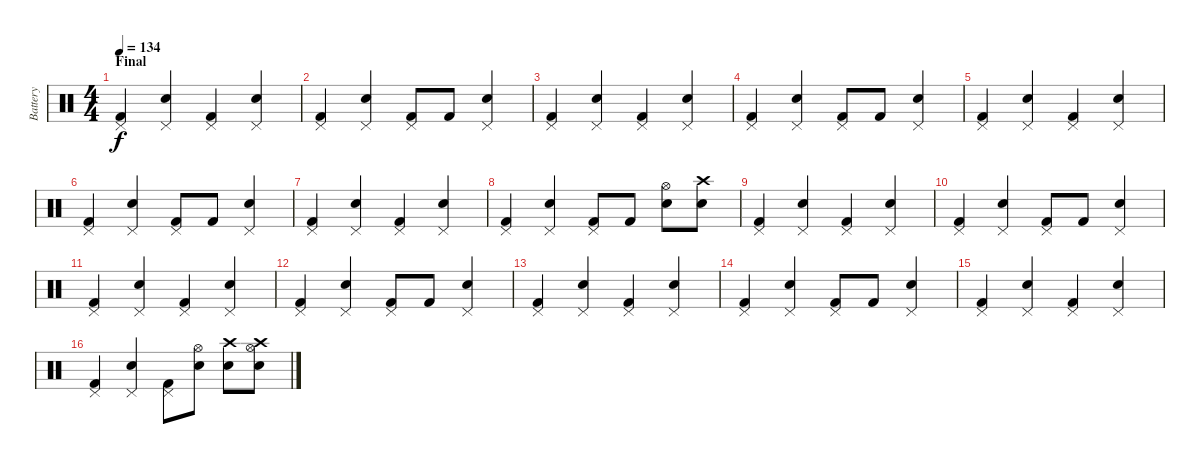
\track ("Battery" "Battery") {instrument percussion}
\staff {score}
\articulation defaults
\ts (4 4)
\section ("" "Final")
\tempo 134
\clef neutral
\ks c
("Pedal Hi-Hat (hit)" "Kick (hit) 2").4{dy f} ("Pedal Hi-Hat (hit)" "Snare (hit) 2").4 ("Pedal Hi-Hat (hit)" "Kick (hit) 2").4 ("Pedal Hi-Hat (hit)" "Snare (hit) 2").4 |
("Pedal Hi-Hat (hit)" "Kick (hit) 2").4 ("Pedal Hi-Hat (hit)" "Snare (hit) 2").4 ("Pedal Hi-Hat (hit)" "Kick (hit) 2").8 "Kick (hit) 2".8 ("Pedal Hi-Hat (hit)" "Snare (hit) 2").4 |
("Pedal Hi-Hat (hit)" "Kick (hit) 2").4 ("Pedal Hi-Hat (hit)" "Snare (hit) 2").4 ("Pedal Hi-Hat (hit)" "Kick (hit) 2").4 ("Pedal Hi-Hat (hit)" "Snare (hit) 2").4 |
("Pedal Hi-Hat (hit)" "Kick (hit) 2").4 ("Pedal Hi-Hat (hit)" "Snare (hit) 2").4 ("Pedal Hi-Hat (hit)" "Kick (hit) 2").8 "Kick (hit) 2".8 ("Pedal Hi-Hat (hit)" "Snare (hit) 2").4 |
("Pedal Hi-Hat (hit)" "Kick (hit) 2").4 ("Pedal Hi-Hat (hit)" "Snare (hit) 2").4 ("Pedal Hi-Hat (hit)" "Kick (hit) 2").4 ("Pedal Hi-Hat (hit)" "Snare (hit) 2").4 |
("Pedal Hi-Hat (hit)" "Kick (hit) 2").4 ("Pedal Hi-Hat (hit)" "Snare (hit) 2").4 ("Pedal Hi-Hat (hit)" "Kick (hit) 2").8 "Kick (hit) 2".8 ("Pedal Hi-Hat (hit)" "Snare (hit) 2").4 |
("Pedal Hi-Hat (hit)" "Kick (hit) 2").4 ("Pedal Hi-Hat (hit)" "Snare (hit) 2").4 ("Pedal Hi-Hat (hit)" "Kick (hit) 2").4 ("Pedal Hi-Hat (hit)" "Snare (hit) 2").4 |
("Pedal Hi-Hat (hit)" "Kick (hit) 2").4 ("Pedal Hi-Hat (hit)" "Snare (hit) 2").4 ("Pedal Hi-Hat (hit)" "Kick (hit) 2").8 "Kick (hit) 2".8 ("Hi-Hat (open)" "Snare (hit) 2").8 ("Crash high (hit)" "Snare (hit) 2").8 |
("Pedal Hi-Hat (hit)" "Kick (hit) 2").4 ("Pedal Hi-Hat (hit)" "Snare (hit) 2").4 ("Pedal Hi-Hat (hit)" "Kick (hit) 2").4 ("Pedal Hi-Hat (hit)" "Snare (hit) 2").4 |
("Pedal Hi-Hat (hit)" "Kick (hit) 2").4 ("Pedal Hi-Hat (hit)" "Snare (hit) 2").4 ("Pedal Hi-Hat (hit)" "Kick (hit) 2").8 "Kick (hit) 2".8 ("Pedal Hi-Hat (hit)" "Snare (hit) 2").4 |
("Pedal Hi-Hat (hit)" "Kick (hit) 2").4 ("Pedal Hi-Hat (hit)" "Snare (hit) 2").4 ("Pedal Hi-Hat (hit)" "Kick (hit) 2").4 ("Pedal Hi-Hat (hit)" "Snare (hit) 2").4 |
("Pedal Hi-Hat (hit)" "Kick (hit) 2").4 ("Pedal Hi-Hat (hit)" "Snare (hit) 2").4 ("Pedal Hi-Hat (hit)" "Kick (hit) 2").8 "Kick (hit) 2".8 ("Pedal Hi-Hat (hit)" "Snare (hit) 2").4 |
("Pedal Hi-Hat (hit)" "Kick (hit) 2").4 ("Pedal Hi-Hat (hit)" "Snare (hit) 2").4 ("Pedal Hi-Hat (hit)" "Kick (hit) 2").4 ("Pedal Hi-Hat (hit)" "Snare (hit) 2").4 |
("Pedal Hi-Hat (hit)" "Kick (hit) 2").4 ("Pedal Hi-Hat (hit)" "Snare (hit) 2").4 ("Pedal Hi-Hat (hit)" "Kick (hit) 2").8 "Kick (hit) 2".8 ("Pedal Hi-Hat (hit)" "Snare (hit) 2").4 |
("Pedal Hi-Hat (hit)" "Kick (hit) 2").4 ("Pedal Hi-Hat (hit)" "Snare (hit) 2").4 ("Pedal Hi-Hat (hit)" "Kick (hit) 2").4 ("Pedal Hi-Hat (hit)" "Snare (hit) 2").4 |
("Pedal Hi-Hat (hit)" "Kick (hit) 2").4 ("Pedal Hi-Hat (hit)" "Snare (hit) 2").4 ("Pedal Hi-Hat (hit)" "Kick (hit) 2").8 ("Hi-Hat (open)" "Snare (hit) 2").8 ("Crash high (hit)" "Snare (hit) 2").8 ("Hi-Hat (open)" "Crash high (hit)" "Snare (hit) 2").8
